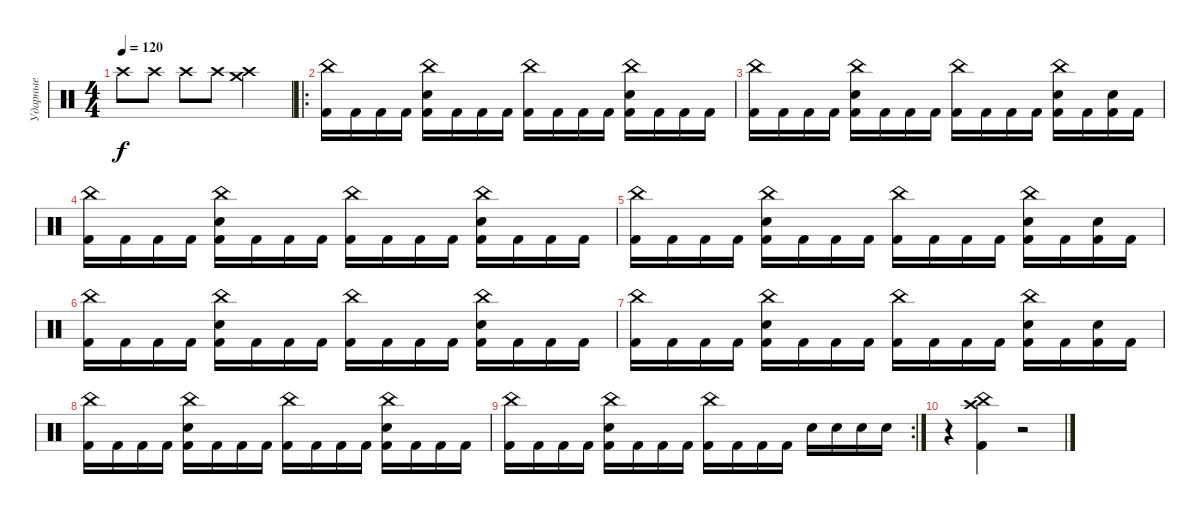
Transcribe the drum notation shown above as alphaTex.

\track ("Ударные" "Ударные") {instrument percussion}
\staff {score}
\articulation defaults
\ts (4 4)
\tempo 120
\clef neutral
\ks c "Crash high (hit)".8{dy f} "Crash high (hit)".8 "Crash high (hit)".8 "Crash high (hit)".8
("Crash high (hit)" "Crash medium (hit)").2 |
\ro
("China (hit)" "Kick (hit) 2").16 "Kick (hit) 2".16 "Kick (hit) 2".16 "Kick (hit) 2".16 ("China (hit)" "Electric Snare (hit)" "Kick (hit) 2").16 "Kick (hit) 2".16 "Kick (hit) 2".16 "Kick (hit) 2".16 ("China (hit)" "Kick (hit) 2").16 "Kick (hit) 2".16 "Kick (hit) 2".16 "Kick (hit) 2".16 ("China (hit)" "Electric Snare (hit)" "Kick (hit) 2").16 "Kick (hit) 2".16 "Kick (hit) 2".16 "Kick (hit) 2".16 |
("China (hit)" "Kick (hit) 2").16 "Kick (hit) 2".16 "Kick (hit) 2".16 "Kick (hit) 2".16 ("China (hit)" "Electric Snare (hit)" "Kick (hit) 2").16 "Kick (hit) 2".16 "Kick (hit) 2".16 "Kick (hit) 2".16 ("China (hit)" "Kick (hit) 2").16 "Kick (hit) 2".16 "Kick (hit) 2".16 "Kick (hit) 2".16 ("China (hit)" "Electric Snare (hit)" "Kick (hit) 2").16 "Kick (hit) 2".16 ("Electric Snare (hit)" "Kick (hit) 2").16 "Kick (hit) 2".16 |
("China (hit)" "Kick (hit) 2").16 "Kick (hit) 2".16 "Kick (hit) 2".16 "Kick (hit) 2".16 ("China (hit)" "Electric Snare (hit)" "Kick (hit) 2").16 "Kick (hit) 2".16 "Kick (hit) 2".16 "Kick (hit) 2".16 ("China (hit)" "Kick (hit) 2").16 "Kick (hit) 2".16 "Kick (hit) 2".16 "Kick (hit) 2".16 ("China (hit)" "Electric Snare (hit)" "Kick (hit) 2").16 "Kick (hit) 2".16 "Kick (hit) 2".16 "Kick (hit) 2".16 |
("China (hit)" "Kick (hit) 2").16 "Kick (hit) 2".16 "Kick (hit) 2".16 "Kick (hit) 2".16 ("China (hit)" "Electric Snare (hit)" "Kick (hit) 2").16 "Kick (hit) 2".16 "Kick (hit) 2".16 "Kick (hit) 2".16 ("China (hit)" "Kick (hit) 2").16 "Kick (hit) 2".16 "Kick (hit) 2".16 "Kick (hit) 2".16 ("China (hit)" "Electric Snare (hit)" "Kick (hit) 2").16 "Kick (hit) 2".16 ("Electric Snare (hit)" "Kick (hit) 2").16 "Kick (hit) 2".16 |
("China (hit)" "Kick (hit) 2").16 "Kick (hit) 2".16 "Kick (hit) 2".16 "Kick (hit) 2".16 ("China (hit)" "Electric Snare (hit)" "Kick (hit) 2").16 "Kick (hit) 2".16 "Kick (hit) 2".16 "Kick (hit) 2".16 ("China (hit)" "Kick (hit) 2").16 "Kick (hit) 2".16 "Kick (hit) 2".16 "Kick (hit) 2".16 ("China (hit)" "Electric Snare (hit)" "Kick (hit) 2").16 "Kick (hit) 2".16 "Kick (hit) 2".16 "Kick (hit) 2".16 |
("China (hit)" "Kick (hit) 2").16 "Kick (hit) 2".16 "Kick (hit) 2".16 "Kick (hit) 2".16 ("China (hit)" "Electric Snare (hit)" "Kick (hit) 2").16 "Kick (hit) 2".16 "Kick (hit) 2".16 "Kick (hit) 2".16 ("China (hit)" "Kick (hit) 2").16 "Kick (hit) 2".16 "Kick (hit) 2".16 "Kick (hit) 2".16 ("China (hit)" "Electric Snare (hit)" "Kick (hit) 2").16 "Kick (hit) 2".16 ("Electric Snare (hit)" "Kick (hit) 2").16 "Kick (hit) 2".16 |
("China (hit)" "Kick (hit) 2").16 "Kick (hit) 2".16 "Kick (hit) 2".16 "Kick (hit) 2".16 ("China (hit)" "Electric Snare (hit)" "Kick (hit) 2").16 "Kick (hit) 2".16 "Kick (hit) 2".16 "Kick (hit) 2".16 ("China (hit)" "Kick (hit) 2").16 "Kick (hit) 2".16 "Kick (hit) 2".16 "Kick (hit) 2".16 ("China (hit)" "Electric Snare (hit)" "Kick (hit) 2").16 "Kick (hit) 2".16 "Kick (hit) 2".16 "Kick (hit) 2".16 |
\rc 2
("China (hit)" "Kick (hit) 2").16 "Kick (hit) 2".16 "Kick (hit) 2".16 "Kick (hit) 2".16 ("China (hit)" "Electric Snare (hit)" "Kick (hit) 2").16 "Kick (hit) 2".16 "Kick (hit) 2".16 "Kick (hit) 2".16 ("China (hit)" "Kick (hit) 2").16 "Kick (hit) 2".16 "Kick (hit) 2".16 "Kick (hit) 2".16 "Electric Snare (hit)".16 "Electric Snare (hit)".16 "Electric Snare (hit)".16 "Electric Snare (hit)".16 |
r.4 ("China (hit)" "Crash high (hit)" "Kick (hit) 2").4 r.2
